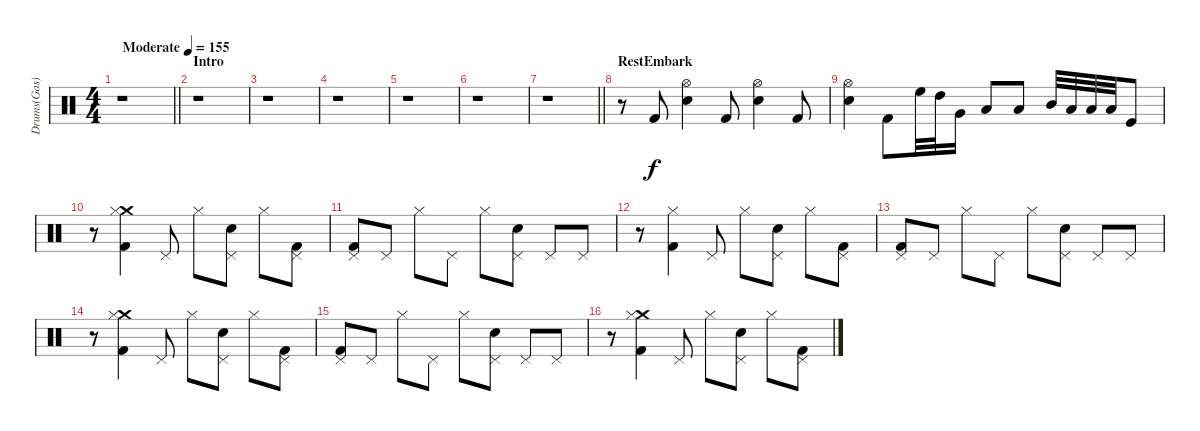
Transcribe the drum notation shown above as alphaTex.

\track ("Drums(Gas)" "Drums(Gas)") {instrument percussion}
\staff {score}
\articulation defaults
\ts (4 4)
\tempo (155 "Moderate")
\clef neutral
\barLineRight lightlight
\ks c
r.1{dy f} |
\section ("" "Intro")
r.1 |
r.1 |
r.1 |
r.1 |
r.1 |
\barLineRight lightlight
r.1 |
\section ("" "RestEmbark")
r.8 "Kick (hit) 2".8 ("Snare (hit) 2" "Hi-Hat (open)").4 "Kick (hit) 2".8 ("Snare (hit) 2" "Hi-Hat (open)").4 "Kick (hit) 2".8 |
("Snare (hit) 2" "Hi-Hat (open)").4 "Kick (hit) 2".8 "High Floor Tom (hit)".32 "High Tom (hit)".32 "Very Low Tom (hit)".16 "Low Tom (hit)".8 "Low Tom (hit)".8 "Mid Tom (hit)".32 "Low Tom (hit)".32 "Low Floor Tom (hit)".32 "Low Floor Tom (hit)".32 "Kick (hit)".8 |
r.8 ("Crash medium (hit)" "Kick (hit) 2" "Hi-Hat (closed)").4 "Pedal Hi-Hat (hit)".8 "Hi-Hat (closed)".8 ("Electric Snare (hit)" "Pedal Hi-Hat (hit)").8 "Hi-Hat (closed)".8 ("Kick (hit) 2" "Pedal Hi-Hat (hit)").8 |
("Kick (hit) 2" "Pedal Hi-Hat (hit)").8 "Pedal Hi-Hat (hit)".8 "Hi-Hat (closed)".8 "Pedal Hi-Hat (hit)".8 "Hi-Hat (closed)".8 ("Electric Snare (hit)" "Pedal Hi-Hat (hit)").8 "Pedal Hi-Hat (hit)".8 "Pedal Hi-Hat (hit)".8 |
r.8 ("Kick (hit) 2" "Hi-Hat (closed)").4 "Pedal Hi-Hat (hit)".8 "Hi-Hat (closed)".8 ("Electric Snare (hit)" "Pedal Hi-Hat (hit)").8 "Hi-Hat (closed)".8 ("Kick (hit) 2" "Pedal Hi-Hat (hit)").8 |
("Kick (hit) 2" "Pedal Hi-Hat (hit)").8 "Pedal Hi-Hat (hit)".8 "Hi-Hat (closed)".8 "Pedal Hi-Hat (hit)".8 "Hi-Hat (closed)".8 ("Electric Snare (hit)" "Pedal Hi-Hat (hit)").8 "Pedal Hi-Hat (hit)".8 "Pedal Hi-Hat (hit)".8 |
r.8 ("Crash medium (hit)" "Kick (hit) 2" "Hi-Hat (closed)").4 "Pedal Hi-Hat (hit)".8 "Hi-Hat (closed)".8 ("Electric Snare (hit)" "Pedal Hi-Hat (hit)").8 "Hi-Hat (closed)".8 ("Kick (hit) 2" "Pedal Hi-Hat (hit)").8 |
("Kick (hit) 2" "Pedal Hi-Hat (hit)").8 "Pedal Hi-Hat (hit)".8 "Hi-Hat (closed)".8 "Pedal Hi-Hat (hit)".8 "Hi-Hat (closed)".8 ("Electric Snare (hit)" "Pedal Hi-Hat (hit)").8 "Pedal Hi-Hat (hit)".8 "Pedal Hi-Hat (hit)".8 |
r.8 ("Crash medium (hit)" "Kick (hit) 2" "Hi-Hat (closed)").4 "Pedal Hi-Hat (hit)".8 "Hi-Hat (closed)".8 ("Electric Snare (hit)" "Pedal Hi-Hat (hit)").8 "Hi-Hat (closed)".8 ("Kick (hit) 2" "Pedal Hi-Hat (hit)").8
